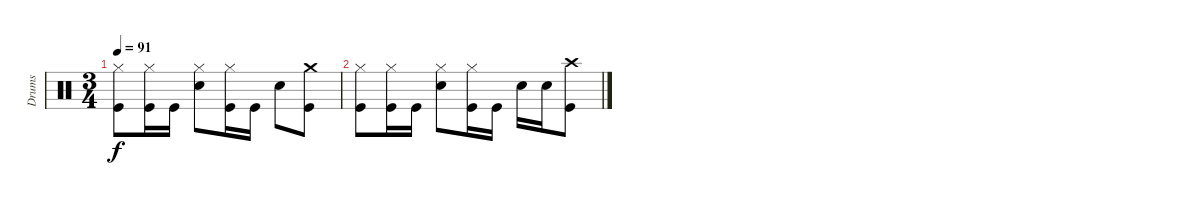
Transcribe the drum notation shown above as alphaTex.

\track ("Drums" "Drums") {instrument percussion}
\staff {score}
\articulation defaults
\ts (3 4)
\tempo 91
\clef neutral
\ks c
("Hi-Hat (closed)" "Kick (hit)").8{dy f} ("Hi-Hat (closed)" "Kick (hit)").16 "Kick (hit)".16 ("Hi-Hat (closed)" "Snare (hit) 2").8 ("Hi-Hat (closed)" "Kick (hit)").16 "Kick (hit)".16 "Snare (hit) 2".8 ("Crash medium (hit)" "Kick (hit)").8 |
("Hi-Hat (closed)" "Kick (hit)").8 ("Hi-Hat (closed)" "Kick (hit)").16 "Kick (hit)".16 ("Hi-Hat (closed)" "Snare (hit) 2").8 ("Hi-Hat (closed)" "Kick (hit)").16 "Kick (hit)".16 "Snare (hit) 2".16 "Snare (hit) 2".16 ("Crash high (hit)" "Kick (hit)").8
